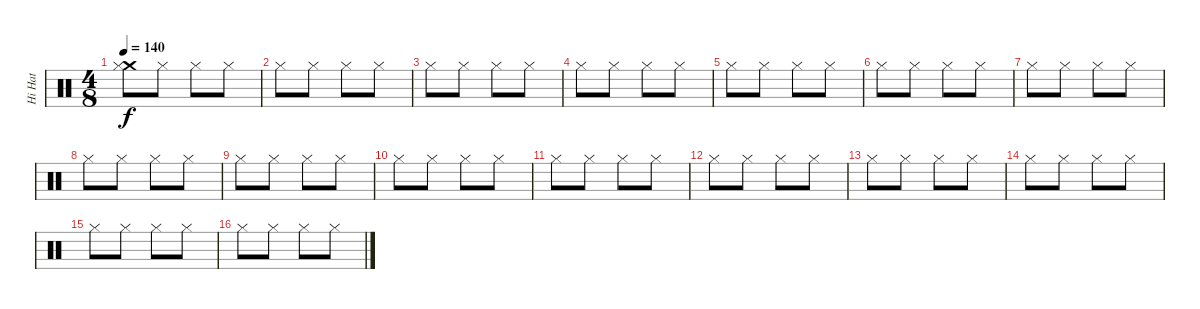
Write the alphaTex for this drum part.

\track ("Hi Hat" "Hi Hat") {instrument percussion}
\staff {score}
\articulation defaults
\ts (4 8)
\tempo 140
\clef neutral
\ks c
("Crash medium (hit)" "Hi-Hat (closed)").8{dy f} "Hi-Hat (closed)".8 "Hi-Hat (closed)".8 "Hi-Hat (closed)".8 |
"Hi-Hat (closed)".8 "Hi-Hat (closed)".8 "Hi-Hat (closed)".8 "Hi-Hat (closed)".8 |
"Hi-Hat (closed)".8 "Hi-Hat (closed)".8 "Hi-Hat (closed)".8 "Hi-Hat (closed)".8 |
"Hi-Hat (closed)".8 "Hi-Hat (closed)".8 "Hi-Hat (closed)".8 "Hi-Hat (closed)".8 |
"Hi-Hat (closed)".8 "Hi-Hat (closed)".8 "Hi-Hat (closed)".8 "Hi-Hat (closed)".8 |
"Hi-Hat (closed)".8 "Hi-Hat (closed)".8 "Hi-Hat (closed)".8 "Hi-Hat (closed)".8 |
"Hi-Hat (closed)".8 "Hi-Hat (closed)".8 "Hi-Hat (closed)".8 "Hi-Hat (closed)".8 |
"Hi-Hat (closed)".8 "Hi-Hat (closed)".8 "Hi-Hat (closed)".8 "Hi-Hat (closed)".8 |
"Hi-Hat (closed)".8 "Hi-Hat (closed)".8 "Hi-Hat (closed)".8 "Hi-Hat (closed)".8 |
"Hi-Hat (closed)".8 "Hi-Hat (closed)".8 "Hi-Hat (closed)".8 "Hi-Hat (closed)".8 |
"Hi-Hat (closed)".8 "Hi-Hat (closed)".8 "Hi-Hat (closed)".8 "Hi-Hat (closed)".8 |
"Hi-Hat (closed)".8 "Hi-Hat (closed)".8 "Hi-Hat (closed)".8 "Hi-Hat (closed)".8 |
"Hi-Hat (closed)".8 "Hi-Hat (closed)".8 "Hi-Hat (closed)".8 "Hi-Hat (closed)".8 |
"Hi-Hat (closed)".8 "Hi-Hat (closed)".8 "Hi-Hat (closed)".8 "Hi-Hat (closed)".8 |
"Hi-Hat (closed)".8 "Hi-Hat (closed)".8 "Hi-Hat (closed)".8 "Hi-Hat (closed)".8 |
"Hi-Hat (closed)".8 "Hi-Hat (closed)".8 "Hi-Hat (closed)".8 "Hi-Hat (closed)".8
